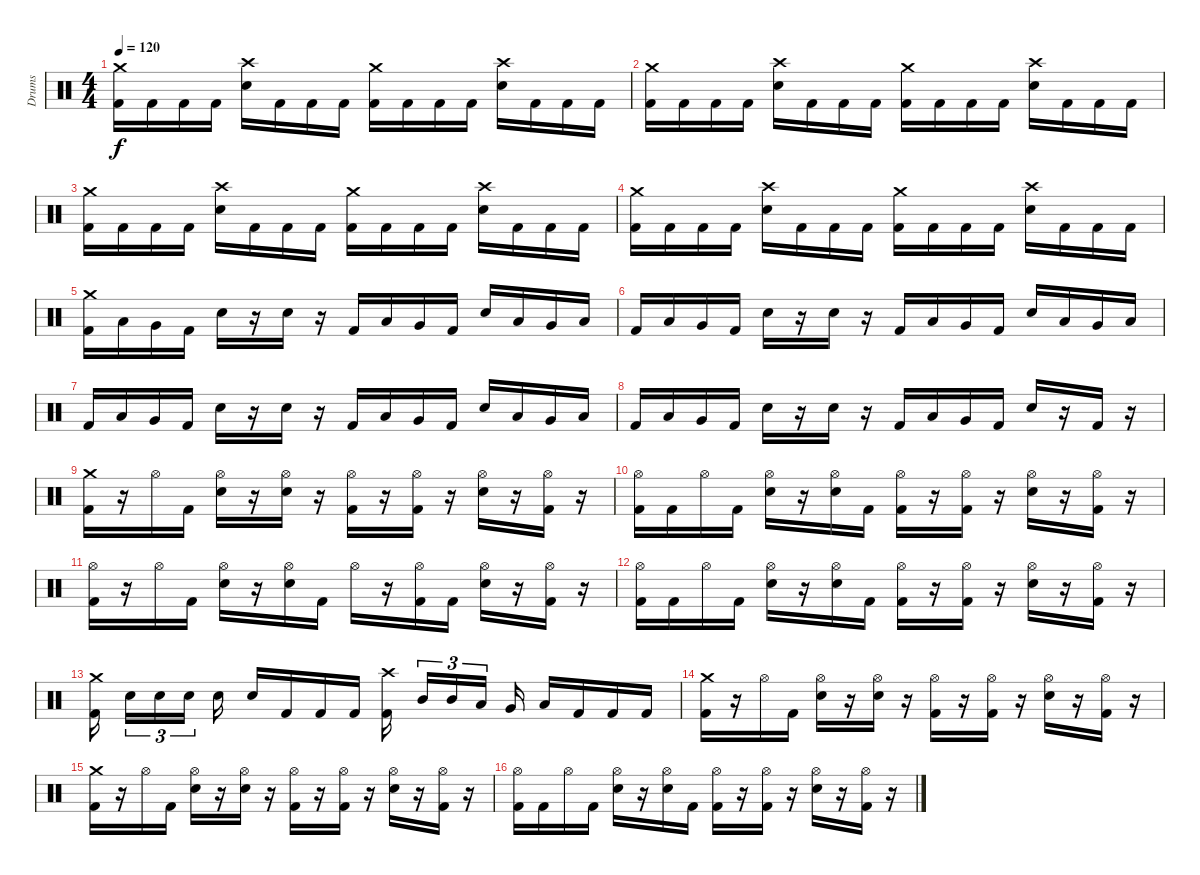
\track ("Drums" "Drums") {instrument percussion}
\staff {score}
\articulation defaults
\ts (4 4)
\tempo 120
\clef neutral
\ks c
("Crash medium (hit)" "Kick (hit) 2").16{dy f} "Kick (hit) 2".16 "Kick (hit) 2".16 "Kick (hit) 2".16 ("Crash high (hit)" "Electric Snare (hit)").16 "Kick (hit) 2".16 "Kick (hit) 2".16 "Kick (hit) 2".16 ("Crash medium (hit)" "Kick (hit) 2").16 "Kick (hit) 2".16 "Kick (hit) 2".16 "Kick (hit) 2".16 ("Crash high (hit)" "Electric Snare (hit)").16 "Kick (hit) 2".16 "Kick (hit) 2".16 "Kick (hit) 2".16 |
("Crash medium (hit)" "Kick (hit) 2").16 "Kick (hit) 2".16 "Kick (hit) 2".16 "Kick (hit) 2".16 ("Crash high (hit)" "Electric Snare (hit)").16 "Kick (hit) 2".16 "Kick (hit) 2".16 "Kick (hit) 2".16 ("Crash medium (hit)" "Kick (hit) 2").16 "Kick (hit) 2".16 "Kick (hit) 2".16 "Kick (hit) 2".16 ("Crash high (hit)" "Electric Snare (hit)").16 "Kick (hit) 2".16 "Kick (hit) 2".16 "Kick (hit) 2".16 |
("Crash medium (hit)" "Kick (hit) 2").16 "Kick (hit) 2".16 "Kick (hit) 2".16 "Kick (hit) 2".16 ("Crash high (hit)" "Electric Snare (hit)").16 "Kick (hit) 2".16 "Kick (hit) 2".16 "Kick (hit) 2".16 ("Crash medium (hit)" "Kick (hit) 2").16 "Kick (hit) 2".16 "Kick (hit) 2".16 "Kick (hit) 2".16 ("Crash high (hit)" "Electric Snare (hit)").16 "Kick (hit) 2".16 "Kick (hit) 2".16 "Kick (hit) 2".16 |
("Crash medium (hit)" "Kick (hit) 2").16 "Kick (hit) 2".16 "Kick (hit) 2".16 "Kick (hit) 2".16 ("Crash high (hit)" "Electric Snare (hit)").16 "Kick (hit) 2".16 "Kick (hit) 2".16 "Kick (hit) 2".16 ("Crash medium (hit)" "Kick (hit) 2").16 "Kick (hit) 2".16 "Kick (hit) 2".16 "Kick (hit) 2".16 ("Crash high (hit)" "Electric Snare (hit)").16 "Kick (hit) 2".16 "Kick (hit) 2".16 "Kick (hit) 2".16 |
\section ("" "")
("Crash medium (hit)" "Kick (hit) 2").16 "Low Tom (hit)".16 "Very Low Tom (hit)".16 "Kick (hit) 2".16 "Electric Snare (hit)".16 r.16 "Electric Snare (hit)".16 r.16 "Kick (hit) 2".16 "Low Tom (hit)".16 "Very Low Tom (hit)".16 "Kick (hit) 2".16 "Electric Snare (hit)".16 "Low Tom (hit)".16 "Very Low Tom (hit)".16 "Low Floor Tom (hit)".16 |
"Kick (hit) 2".16 "Low Tom (hit)".16 "Very Low Tom (hit)".16 "Kick (hit) 2".16 "Electric Snare (hit)".16 r.16 "Electric Snare (hit)".16 r.16 "Kick (hit) 2".16 "Low Tom (hit)".16 "Very Low Tom (hit)".16 "Kick (hit) 2".16 "Electric Snare (hit)".16 "Low Tom (hit)".16 "Very Low Tom (hit)".16 "Low Floor Tom (hit)".16 |
"Kick (hit) 2".16 "Low Tom (hit)".16 "Very Low Tom (hit)".16 "Kick (hit) 2".16 "Electric Snare (hit)".16 r.16 "Electric Snare (hit)".16 r.16 "Kick (hit) 2".16 "Low Tom (hit)".16 "Very Low Tom (hit)".16 "Kick (hit) 2".16 "Electric Snare (hit)".16 "Low Tom (hit)".16 "Very Low Tom (hit)".16 "Low Floor Tom (hit)".16 |
"Kick (hit) 2".16 "Low Tom (hit)".16 "Very Low Tom (hit)".16 "Kick (hit) 2".16 "Electric Snare (hit)".16 r.16 "Electric Snare (hit)".16 r.16 "Kick (hit) 2".16 "Low Tom (hit)".16 "Very Low Tom (hit)".16 "Kick (hit) 2".16 "Electric Snare (hit)".16 r.16 "Kick (hit) 2".16 r.16 |
\section ("" "")
("Crash medium (hit)" "Kick (hit) 2").16 r.16 "Hi-Hat (open)".16 "Kick (hit) 2".16 ("Hi-Hat (open)" "Electric Snare (hit)").16 r.16 ("Hi-Hat (open)" "Electric Snare (hit)").16 r.16 ("Hi-Hat (open)" "Kick (hit) 2").16 r.16 ("Hi-Hat (open)" "Kick (hit) 2").16 r.16 ("Hi-Hat (open)" "Electric Snare (hit)").16 r.16 ("Hi-Hat (open)" "Kick (hit) 2").16 r.16 |
("Hi-Hat (open)" "Kick (hit) 2").16 "Kick (hit) 2".16 "Hi-Hat (open)".16 "Kick (hit) 2".16 ("Hi-Hat (open)" "Electric Snare (hit)").16 r.16 ("Hi-Hat (open)" "Electric Snare (hit)").16 "Kick (hit) 2".16 ("Hi-Hat (open)" "Kick (hit) 2").16 r.16 ("Hi-Hat (open)" "Kick (hit) 2").16 r.16 ("Hi-Hat (open)" "Electric Snare (hit)").16 r.16 ("Hi-Hat (open)" "Kick (hit) 2").16 r.16 |
("Hi-Hat (open)" "Kick (hit) 2").16 r.16 "Hi-Hat (open)".16 "Kick (hit) 2".16 ("Hi-Hat (open)" "Electric Snare (hit)").16 r.16 ("Hi-Hat (open)" "Electric Snare (hit)").16 "Kick (hit) 2".16 "Hi-Hat (open)".16 r.16 ("Hi-Hat (open)" "Kick (hit) 2").16 "Kick (hit) 2".16 ("Hi-Hat (open)" "Electric Snare (hit)").16 r.16 ("Hi-Hat (open)" "Kick (hit) 2").16 r.16 |
("Hi-Hat (open)" "Kick (hit) 2").16 "Kick (hit) 2".16 "Hi-Hat (open)".16 "Kick (hit) 2".16 ("Hi-Hat (open)" "Electric Snare (hit)").16 r.16 ("Hi-Hat (open)" "Electric Snare (hit)").16 "Kick (hit) 2".16 ("Hi-Hat (open)" "Kick (hit) 2").16 r.16 ("Hi-Hat (open)" "Kick (hit) 2").16 r.16 ("Hi-Hat (open)" "Electric Snare (hit)").16 r.16 ("Hi-Hat (open)" "Kick (hit) 2").16 r.16 |
("Crash medium (hit)" "Kick (hit) 2").16 "Electric Snare (hit)".16{tu (3 2)} "Electric Snare (hit)".16{tu (3 2)} "Electric Snare (hit)".16{tu (3 2)} "Electric Snare (hit)".16 "Electric Snare (hit)".16 "Kick (hit) 2".16 "Kick (hit) 2".16 "Kick (hit) 2".16 ("Crash high (hit)" "Kick (hit) 2").16 "Mid Tom (hit)".16{tu (3 2)} "Mid Tom (hit)".16{tu (3 2)} "Low Tom (hit)".16{tu (3 2)} "Very Low Tom (hit)".16 "Low Floor Tom (hit)".16 "Kick (hit) 2".16 "Kick (hit) 2".16 "Kick (hit) 2".16 |
("Crash medium (hit)" "Kick (hit) 2").16 r.16 "Hi-Hat (open)".16 "Kick (hit) 2".16 ("Hi-Hat (open)" "Electric Snare (hit)").16 r.16 ("Hi-Hat (open)" "Electric Snare (hit)").16 r.16 ("Hi-Hat (open)" "Kick (hit) 2").16 r.16 ("Hi-Hat (open)" "Kick (hit) 2").16 r.16 ("Hi-Hat (open)" "Electric Snare (hit)").16 r.16 ("Hi-Hat (open)" "Kick (hit) 2").16 r.16 |
("Crash medium (hit)" "Kick (hit) 2").16 r.16 "Hi-Hat (open)".16 "Kick (hit) 2".16 ("Hi-Hat (open)" "Electric Snare (hit)").16 r.16 ("Hi-Hat (open)" "Electric Snare (hit)").16 r.16 ("Hi-Hat (open)" "Kick (hit) 2").16 r.16 ("Hi-Hat (open)" "Kick (hit) 2").16 r.16 ("Hi-Hat (open)" "Electric Snare (hit)").16 r.16 ("Hi-Hat (open)" "Kick (hit) 2").16 r.16 |
("Hi-Hat (open)" "Kick (hit) 2").16 "Kick (hit) 2".16 "Hi-Hat (open)".16 "Kick (hit) 2".16 ("Hi-Hat (open)" "Electric Snare (hit)").16 r.16 ("Hi-Hat (open)" "Electric Snare (hit)").16 "Kick (hit) 2".16 ("Hi-Hat (open)" "Kick (hit) 2").16 r.16 ("Hi-Hat (open)" "Kick (hit) 2").16 r.16 ("Hi-Hat (open)" "Electric Snare (hit)").16 r.16 ("Hi-Hat (open)" "Kick (hit) 2").16 r.16
